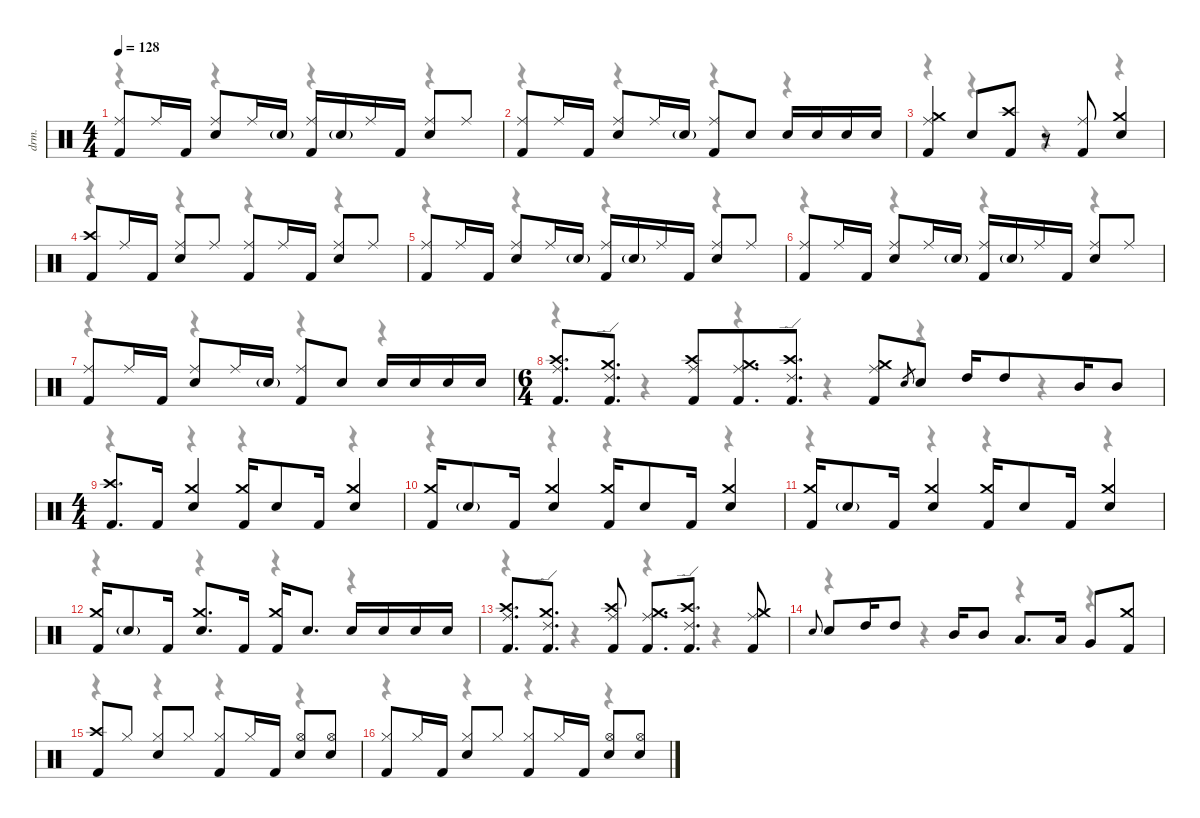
\defaultSystemsLayout 4
\hideDynamics
\bracketExtendMode nobrackets
\track ("Drums" "drm.") {instrument percussion}
\staff {score}
\articulation defaults
\voice
\ts (4 4)
\tempo 128
\clef neutral
\ks c
("Kick (hit) 2" "Ride (middle)").8{dy fff} "Ride (middle)".16{dy mp} "Kick (hit) 2".16{dy fff} ("Snare (hit) 2" "Ride (middle)").8 "Ride (middle)".16{dy mp} "Snare (hit) 2"{g}.16{dy mf} ("Kick (hit) 2" "Ride (middle)").16{dy fff} "Snare (hit) 2"{g}.16{dy mf} "Ride (middle)".16{dy mp} "Kick (hit) 2".16{dy fff} ("Snare (hit) 2" "Ride (middle)").8 "Ride (middle)".8{dy mp} |
("Kick (hit) 2" "Ride (middle)").8{dy fff} "Ride (middle)".16{dy mp} "Kick (hit) 2".16{dy fff} ("Snare (hit) 2" "Ride (middle)").8 "Ride (middle)".16{dy mp} "Snare (hit) 2"{g}.16{dy mf} ("Kick (hit) 2" "Ride (middle)").8{dy fff} "Snare (hit) 2".8 "Snare (hit) 2".16 "Snare (hit) 2".16 "Snare (hit) 2".16 "Snare (hit) 2".16 |
("Kick (hit) 2" "Ride (middle)" "Crash medium (hit)").4 "Snare (hit) 2".8 ("Kick (hit) 2" "Crash high (hit)").8 r.8 ("Kick (hit) 2" "Ride (middle)").8 ("Snare (hit) 2" "Crash medium (hit)").4 |
("Kick (hit) 2" "Crash high (hit)").8 "Ride (middle)".16{dy mp} "Kick (hit) 2".16{dy fff} ("Snare (hit) 2" "Ride (middle)").8 "Ride (middle)".8{dy mp} ("Kick (hit) 2" "Ride (middle)").8{dy fff} "Ride (middle)".16{dy mp} "Kick (hit) 2".16{dy fff} ("Snare (hit) 2" "Ride (middle)").8 "Ride (middle)".8{dy mp} |
("Kick (hit) 2" "Ride (middle)").8{dy fff} "Ride (middle)".16{dy mp} "Kick (hit) 2".16{dy fff} ("Snare (hit) 2" "Ride (middle)").8 "Ride (middle)".16{dy mp} "Snare (hit) 2"{g}.16{dy mf} ("Kick (hit) 2" "Ride (middle)").16{dy fff} "Snare (hit) 2"{g}.16{dy mf} "Ride (middle)".16{dy mp} "Kick (hit) 2".16{dy fff} ("Snare (hit) 2" "Ride (middle)").8 "Ride (middle)".8{dy mp} |
("Kick (hit) 2" "Ride (middle)").8{dy fff} "Ride (middle)".16{dy mp} "Kick (hit) 2".16{dy fff} ("Snare (hit) 2" "Ride (middle)").8 "Ride (middle)".16{dy mp} "Snare (hit) 2"{g}.16{dy mf} ("Kick (hit) 2" "Ride (middle)").16{dy fff} "Snare (hit) 2"{g}.16{dy mf} "Ride (middle)".16{dy mp} "Kick (hit) 2".16{dy fff} ("Snare (hit) 2" "Ride (middle)").8 "Ride (middle)".8{dy mp} |
("Kick (hit) 2" "Ride (middle)").8{dy fff} "Ride (middle)".16{dy mp} "Kick (hit) 2".16{dy fff} ("Snare (hit) 2" "Ride (middle)").8 "Ride (middle)".16{dy mp} "Snare (hit) 2"{g}.16{dy mf} ("Kick (hit) 2" "Ride (middle)").8{dy fff} "Snare (hit) 2".8 "Snare (hit) 2".16 "Snare (hit) 2".16 "Snare (hit) 2".16 "Snare (hit) 2".16 |
\ts (6 4)
\beaming (8 3 3 3 3)
("Kick (hit) 2" "Ride (middle)" "Crash high (hit)").8{d} ("Kick (hit) 2" "Ride (edge) 2" "Crash medium (hit)").8{d} ("Kick (hit) 2" "Ride (middle)" "Crash high (hit)").8 ("Kick (hit) 2" "Ride (middle)" "Crash medium (hit)").8{d} ("Kick (hit) 2" "Ride (edge) 2" "Crash high (hit)").8{d} ("Kick (hit) 2" "Ride (middle)" "Crash medium (hit)").8 "Electric Snare (hit)".8{gr dy ff} "Snare (hit) 2".8{dy fff} "High Tom (hit)".16 "High Tom (hit)".8 "Mid Tom (hit)".16 "Mid Tom (hit)".8 |
\ts (4 4)
\beaming (8 2 2 2 2)
("Kick (hit) 2" "Crash high (hit)").8{d} "Kick (hit) 2".16 ("Snare (hit) 2" "Crash medium (hit)").4 ("Kick (hit) 2" "Crash medium (hit)").16 "Snare (hit) 2".8 "Kick (hit) 2".16 ("Snare (hit) 2" "Crash medium (hit)").4 |
("Kick (hit) 2" "Crash medium (hit)").16 "Snare (hit) 2"{g}.8{dy mf} "Kick (hit) 2".16{dy fff} ("Snare (hit) 2" "Crash medium (hit)").4 ("Kick (hit) 2" "Crash medium (hit)").16 "Snare (hit) 2".8 "Kick (hit) 2".16 ("Snare (hit) 2" "Crash medium (hit)").4 |
("Kick (hit) 2" "Crash medium (hit)").16 "Snare (hit) 2"{g}.8{dy mf} "Kick (hit) 2".16{dy fff} ("Snare (hit) 2" "Crash medium (hit)").4 ("Kick (hit) 2" "Crash medium (hit)").16 "Snare (hit) 2".8 "Kick (hit) 2".16 ("Snare (hit) 2" "Crash medium (hit)").4 |
("Kick (hit) 2" "Crash medium (hit)").16 "Snare (hit) 2"{g}.8{dy mf} "Kick (hit) 2".16{dy fff} ("Snare (hit) 2" "Crash medium (hit)").8{d} "Kick (hit) 2".16 ("Kick (hit) 2" "Crash medium (hit)").16 "Snare (hit) 2".8{d} "Snare (hit) 2".16 "Snare (hit) 2".16 "Snare (hit) 2".16 "Snare (hit) 2".16 |
("Kick (hit) 2" "Ride (middle)" "Crash high (hit)").8{d} ("Kick (hit) 2" "Ride (edge) 2" "Crash medium (hit)").8{d} ("Kick (hit) 2" "Ride (middle)" "Crash high (hit)").8 ("Kick (hit) 2" "Ride (middle)" "Crash medium (hit)").8{d} ("Kick (hit) 2" "Ride (edge) 2" "Crash high (hit)").8{d} ("Kick (hit) 2" "Ride (middle)" "Crash medium (hit)").8 |
"Electric Snare (hit)".8{gr onbeat dy ff} "Snare (hit) 2".8{dy fff} "High Tom (hit)".16 "High Tom (hit)".8 "Mid Tom (hit)".16 "Mid Tom (hit)".8 "Low Tom (hit)".8{d} "Low Tom (hit)".16 "Very Low Tom (hit)".8 ("Kick (hit) 2" "Crash medium (hit)").8 |
("Kick (hit) 2" "Crash high (hit)").8 "Hi-Hat (closed)".8{dy p} ("Snare (hit) 2" "Hi-Hat (closed)").8{dy fff} "Hi-Hat (closed)".8{dy p} ("Kick (hit) 2" "Hi-Hat (closed)").8{dy fff} "Hi-Hat (closed)".16{dy p} "Kick (hit) 2".16{dy fff} ("Snare (hit) 2" "Hi-Hat (open)").8 ("Snare (hit) 2" "Hi-Hat (open)").8 |
("Kick (hit) 2" "Hi-Hat (closed)").8 "Hi-Hat (closed)".16{dy p} "Kick (hit) 2".16{dy fff} ("Snare (hit) 2" "Hi-Hat (closed)").8 "Hi-Hat (closed)".8{dy p} ("Kick (hit) 2" "Hi-Hat (closed)").8{dy fff} "Hi-Hat (closed)".16{dy p} "Kick (hit) 2".16{dy fff} ("Snare (hit) 2" "Hi-Hat (open)").8 ("Snare (hit) 2" "Hi-Hat (open)").8
\voice
\clef neutral
\ottava regular
\simile none
\ks c
r.4{dy mf} r.4 r.4 r.4 |
r.4 r.4 r.4 r.4 |
r.4 r.4 r.4 r.4 |
r.4 r.4 r.4 r.4 |
r.4 r.4 r.4 r.4 |
r.4 r.4 r.4 r.4 |
r.4 r.4 r.4 r.4 |
r.4 r.4 r.4 r.4 r.4 r.4 |
r.4 r.4 r.4 r.4 |
r.4 r.4 r.4 r.4 |
r.4 r.4 r.4 r.4 |
r.4 r.4 r.4 r.4 |
r.4 r.4 r.4 r.4 |
r.4 r.4 r.4 r.4 |
r.4 r.4 r.4 r.4 |
r.4 r.4 r.4 r.4
